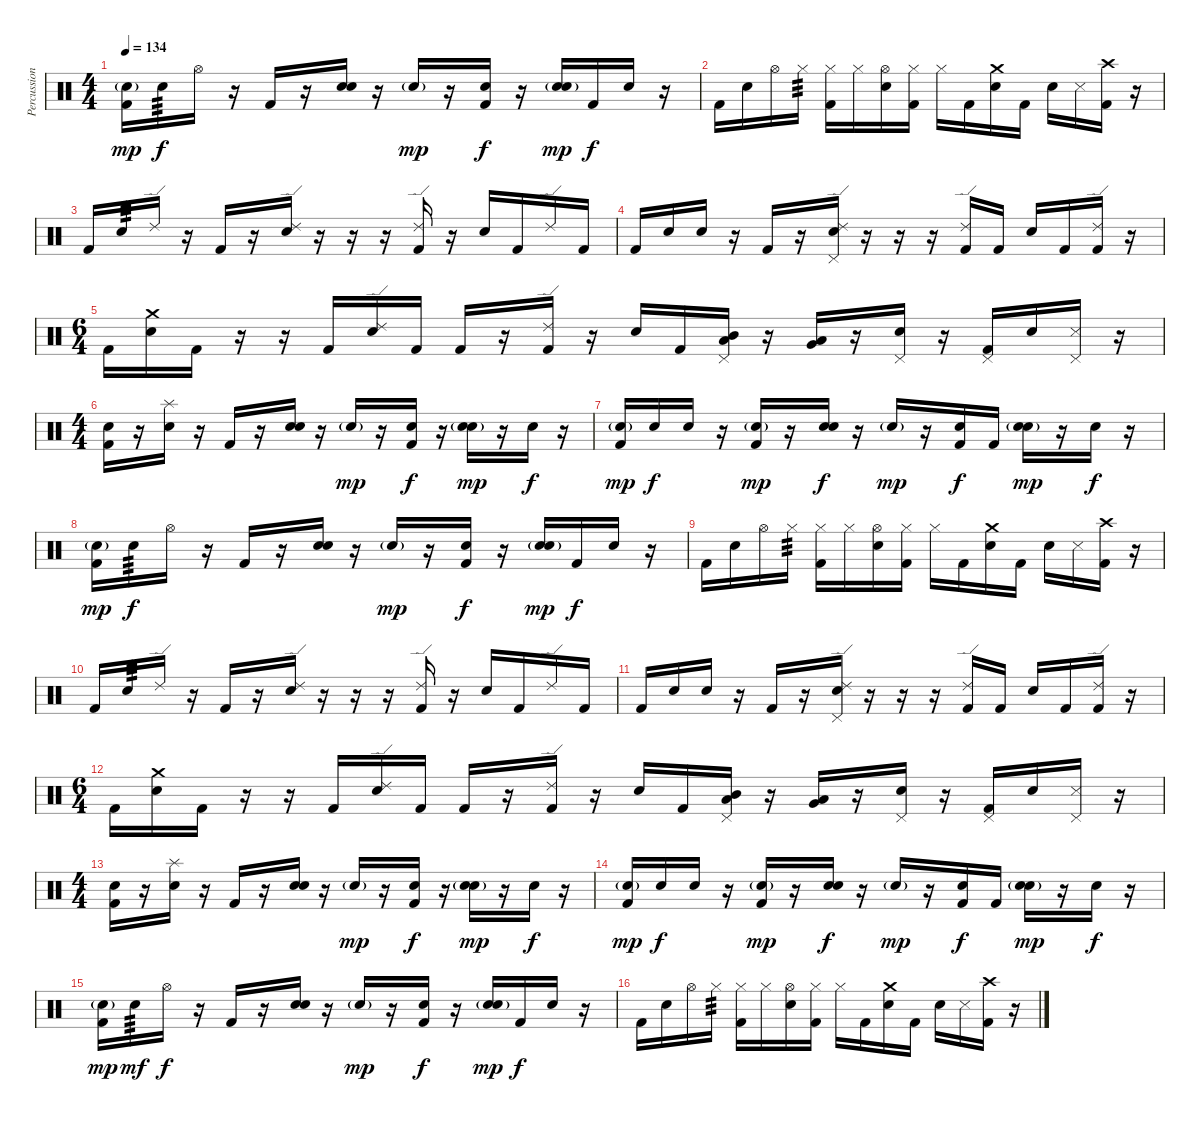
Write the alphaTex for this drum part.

\track ("Percussion" "Percussion") {instrument percussion}
\staff {score}
\articulation defaults
\ts (4 4)
\tempo 134
\clef neutral
\ks c
("Snare (hit)"{g} "Kick (hit) 2").16{dy mp} "Snare (hit) 2".16{tp 3 dy f} "Hi-Hat (open)".16 r.16 "Kick (hit) 2".16 r.16 ("Snare (hit)" "Snare (hit) 2").16 r.16 "Snare (hit)"{g}.16{dy mp} r.16 ("Snare (hit)" "Kick (hit) 2").16{dy f} r.16 ("Snare (hit)"{g} "Snare (hit) 2").16{dy mp} "Kick (hit) 2".16{dy f} "Snare (hit)".16 r.16 |
"Kick (hit) 2".16 "Snare (hit) 2".16 "Hi-Hat (open)".16 "Hi-Hat (closed)".16{tp 3} ("Hi-Hat (closed)" "Kick (hit) 2").16 "Hi-Hat (closed)".16 ("Hi-Hat (open)" "Snare (hit) 2").16 ("Hi-Hat (closed)" "Kick (hit) 2").16 "Hi-Hat (closed)".16 "Kick (hit) 2".16 ("Crash medium (hit)" "Snare (hit) 2").16 "Kick (hit) 2".16 "Snare (hit) 2".16 "Metronome (hit)".16 ("Crash high (hit)" "Kick (hit) 2").16 r.16 |
"Kick (hit) 2".16 "Snare (hit) 2".16{tp 3} "Ride (edge) 2".16 r.16 "Kick (hit) 2".16 r.16 ("Ride (edge) 2" "Snare (hit) 2").16 r.16 r.16 r.16 ("Ride (edge) 2" "Kick (hit) 2").16 r.16 "Snare (hit) 2".16 "Kick (hit) 2".16 "Ride (edge) 2".16 "Kick (hit) 2".16 |
"Kick (hit) 2".16 "Snare (hit) 2".16 "Snare (hit)".16 r.16 "Kick (hit) 2".16 r.16 ("Ride (edge) 2" "Pedal Hi-Hat (hit)" "Snare (hit) 2").16 r.16 r.16 r.16 ("Ride (edge) 2" "Kick (hit) 2").16 "Kick (hit) 2".16 "Snare (hit) 2".16 "Kick (hit) 2".16 ("Ride (edge) 2" "Kick (hit) 2").16 r.16 |
\ts (6 4)
"Kick (hit) 2".16 ("Crash medium (hit)" "Snare (hit) 2").16 "Kick (hit) 2".16 r.16 r.16 "Kick (hit) 2".16 ("Ride (edge) 2" "Snare (hit) 2").16 "Kick (hit) 2".16 "Kick (hit) 2".16 r.16 ("Ride (edge) 2" "Kick (hit) 2").16 r.16 "Snare (hit) 2".16 "Kick (hit) 2".16 ("Pedal Hi-Hat (hit)" "Mid Tom (hit)" "Low Tom (hit)").16 r.16 ("Low Tom (hit)" "Very Low Tom (hit)").16 r.16 ("Pedal Hi-Hat (hit)" "Snare (hit) 2").16 r.16 ("Pedal Hi-Hat (hit)" "Kick (hit) 2").16 "Snare (hit) 2".16 ("Pedal Hi-Hat (hit)" "Metronome (hit)").16 r.16 |
\ts (4 4)
("Snare (hit)" "Kick (hit) 2").16 r.16 ("Splash (hit)" "Snare (hit) 2").16 r.16 "Kick (hit) 2".16 r.16 ("Snare (hit)" "Snare (hit) 2").16 r.16 "Snare (hit)"{g}.16{dy mp} r.16 ("Snare (hit)" "Kick (hit) 2").16{dy f} r.16 ("Snare (hit)"{g} "Snare (hit) 2").16{dy mp} r.16 "Snare (hit)".16{dy f} r.16 |
("Snare (hit)"{g} "Kick (hit) 2").16{dy mp} "Snare (hit) 2".16{dy f} "Snare (hit)".16 r.16 ("Snare (hit)"{g} "Kick (hit) 2").16{dy mp} r.16 ("Snare (hit)" "Snare (hit) 2").16{dy f} r.16 "Snare (hit)"{g}.16{dy mp} r.16 ("Snare (hit)" "Kick (hit) 2").16{dy f} "Kick (hit) 2".16 ("Snare (hit)"{g} "Snare (hit) 2").16{dy mp} r.16 "Snare (hit)".16{dy f} r.16 |
("Snare (hit)"{g} "Kick (hit) 2").16{dy mp} "Snare (hit) 2".16{tp 3 dy f} "Hi-Hat (open)".16 r.16 "Kick (hit) 2".16 r.16 ("Snare (hit)" "Snare (hit) 2").16 r.16 "Snare (hit)"{g}.16{dy mp} r.16 ("Snare (hit)" "Kick (hit) 2").16{dy f} r.16 ("Snare (hit)"{g} "Snare (hit) 2").16{dy mp} "Kick (hit) 2".16{dy f} "Snare (hit)".16 r.16 |
"Kick (hit) 2".16 "Snare (hit) 2".16 "Hi-Hat (open)".16 "Hi-Hat (closed)".16{tp 3} ("Hi-Hat (closed)" "Kick (hit) 2").16 "Hi-Hat (closed)".16 ("Hi-Hat (open)" "Snare (hit) 2").16 ("Hi-Hat (closed)" "Kick (hit) 2").16 "Hi-Hat (closed)".16 "Kick (hit) 2".16 ("Crash medium (hit)" "Snare (hit) 2").16 "Kick (hit) 2".16 "Snare (hit) 2".16 "Metronome (hit)".16 ("Crash high (hit)" "Kick (hit) 2").16 r.16 |
"Kick (hit) 2".16 "Snare (hit) 2".16{tp 3} "Ride (edge) 2".16 r.16 "Kick (hit) 2".16 r.16 ("Ride (edge) 2" "Snare (hit) 2").16 r.16 r.16 r.16 ("Ride (edge) 2" "Kick (hit) 2").16 r.16 "Snare (hit) 2".16 "Kick (hit) 2".16 "Ride (edge) 2".16 "Kick (hit) 2".16 |
"Kick (hit) 2".16 "Snare (hit) 2".16 "Snare (hit)".16 r.16 "Kick (hit) 2".16 r.16 ("Ride (edge) 2" "Pedal Hi-Hat (hit)" "Snare (hit) 2").16 r.16 r.16 r.16 ("Ride (edge) 2" "Kick (hit) 2").16 "Kick (hit) 2".16 "Snare (hit) 2".16 "Kick (hit) 2".16 ("Ride (edge) 2" "Kick (hit) 2").16 r.16 |
\ts (6 4)
"Kick (hit) 2".16 ("Crash medium (hit)" "Snare (hit) 2").16 "Kick (hit) 2".16 r.16 r.16 "Kick (hit) 2".16 ("Ride (edge) 2" "Snare (hit) 2").16 "Kick (hit) 2".16 "Kick (hit) 2".16 r.16 ("Ride (edge) 2" "Kick (hit) 2").16 r.16 "Snare (hit) 2".16 "Kick (hit) 2".16 ("Pedal Hi-Hat (hit)" "Mid Tom (hit)" "Low Tom (hit)").16 r.16 ("Low Tom (hit)" "Very Low Tom (hit)").16 r.16 ("Pedal Hi-Hat (hit)" "Snare (hit) 2").16 r.16 ("Pedal Hi-Hat (hit)" "Kick (hit) 2").16 "Snare (hit) 2".16 ("Pedal Hi-Hat (hit)" "Metronome (hit)").16 r.16 |
\ts (4 4)
("Snare (hit)" "Kick (hit) 2").16 r.16 ("Splash (hit)" "Snare (hit) 2").16 r.16 "Kick (hit) 2".16 r.16 ("Snare (hit)" "Snare (hit) 2").16 r.16 "Snare (hit)"{g}.16{dy mp} r.16 ("Snare (hit)" "Kick (hit) 2").16{dy f} r.16 ("Snare (hit)"{g} "Snare (hit) 2").16{dy mp} r.16 "Snare (hit)".16{dy f} r.16 |
("Snare (hit)"{g} "Kick (hit) 2").16{dy mp} "Snare (hit) 2".16{dy f} "Snare (hit)".16 r.16 ("Snare (hit)"{g} "Kick (hit) 2").16{dy mp} r.16 ("Snare (hit)" "Snare (hit) 2").16{dy f} r.16 "Snare (hit)"{g}.16{dy mp} r.16 ("Snare (hit)" "Kick (hit) 2").16{dy f} "Kick (hit) 2".16 ("Snare (hit)"{g} "Snare (hit) 2").16{dy mp} r.16 "Snare (hit)".16{dy f} r.16 |
("Snare (hit)"{g} "Kick (hit) 2").16{dy mp} "Snare (hit) 2".16{tp 3 dy mf} "Hi-Hat (open)".16{dy f} r.16 "Kick (hit) 2".16 r.16 ("Snare (hit)" "Snare (hit) 2").16 r.16 "Snare (hit)"{g}.16{dy mp} r.16 ("Snare (hit)" "Kick (hit) 2").16{dy f} r.16 ("Snare (hit)"{g} "Snare (hit) 2").16{dy mp} "Kick (hit) 2".16{dy f} "Snare (hit)".16 r.16 |
"Kick (hit) 2".16 "Snare (hit) 2".16 "Hi-Hat (open)".16 "Hi-Hat (closed)".16{tp 3} ("Hi-Hat (closed)" "Kick (hit) 2").16 "Hi-Hat (closed)".16 ("Hi-Hat (open)" "Snare (hit) 2").16 ("Hi-Hat (closed)" "Kick (hit) 2").16 "Hi-Hat (closed)".16 "Kick (hit) 2".16 ("Crash medium (hit)" "Snare (hit) 2").16 "Kick (hit) 2".16 "Snare (hit) 2".16 "Metronome (hit)".16 ("Crash high (hit)" "Kick (hit) 2").16 r.16
